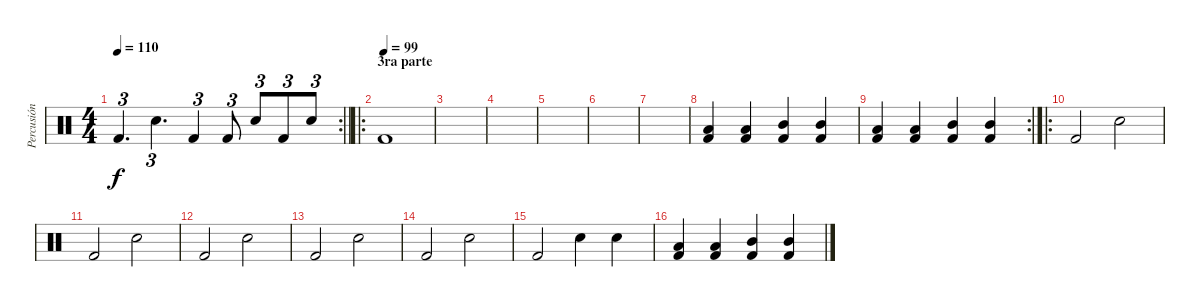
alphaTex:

\track ("Percusión" "Percusión") {instrument percussion}
\staff {score}
\articulation defaults
\rc 2
\ts (4 4)
\tempo 110
\clef neutral
\barLineRight lightlight
\ks c "Kick (hit) 2".4{d tu (3 2) dy f} "Electric Snare (hit)".4{d tu (3 2)} "Kick (hit) 2".4{tu (3 2)} "Kick (hit) 2".8{tu (3 2)} "Electric Snare (hit)".8{tu (3 2)} "Kick (hit) 2".8{tu (3 2)} "Electric Snare (hit)".8{tu (3 2)}
|
\ro
\section ("" "3ra parte")
\tempo (99)
"Kick (hit) 2".1 |
|
|
|
|
|
("Low Tom (hit)" "Kick (hit) 2").4 ("Low Tom (hit)" "Kick (hit) 2").4 ("Mid Tom (hit)" "Kick (hit) 2").4 ("Mid Tom (hit)" "Kick (hit) 2").4 |
\rc 2
("Low Tom (hit)" "Kick (hit) 2").4 ("Low Tom (hit)" "Kick (hit) 2").4 ("Mid Tom (hit)" "Kick (hit) 2").4 ("Mid Tom (hit)" "Kick (hit) 2").4 |
\ro "Kick (hit) 2".2 "Electric Snare (hit)".2
|
"Kick (hit) 2".2 "Electric Snare (hit)".2 |
"Kick (hit) 2".2 "Electric Snare (hit)".2 |
"Kick (hit) 2".2 "Electric Snare (hit)".2 |
"Kick (hit) 2".2 "Electric Snare (hit)".2 |
"Kick (hit) 2".2 "Electric Snare (hit)".4 "Electric Snare (hit)".4 |
("Low Tom (hit)" "Kick (hit) 2").4 ("Low Tom (hit)" "Kick (hit) 2").4 ("Mid Tom (hit)" "Kick (hit) 2").4 ("Mid Tom (hit)" "Kick (hit) 2").4
